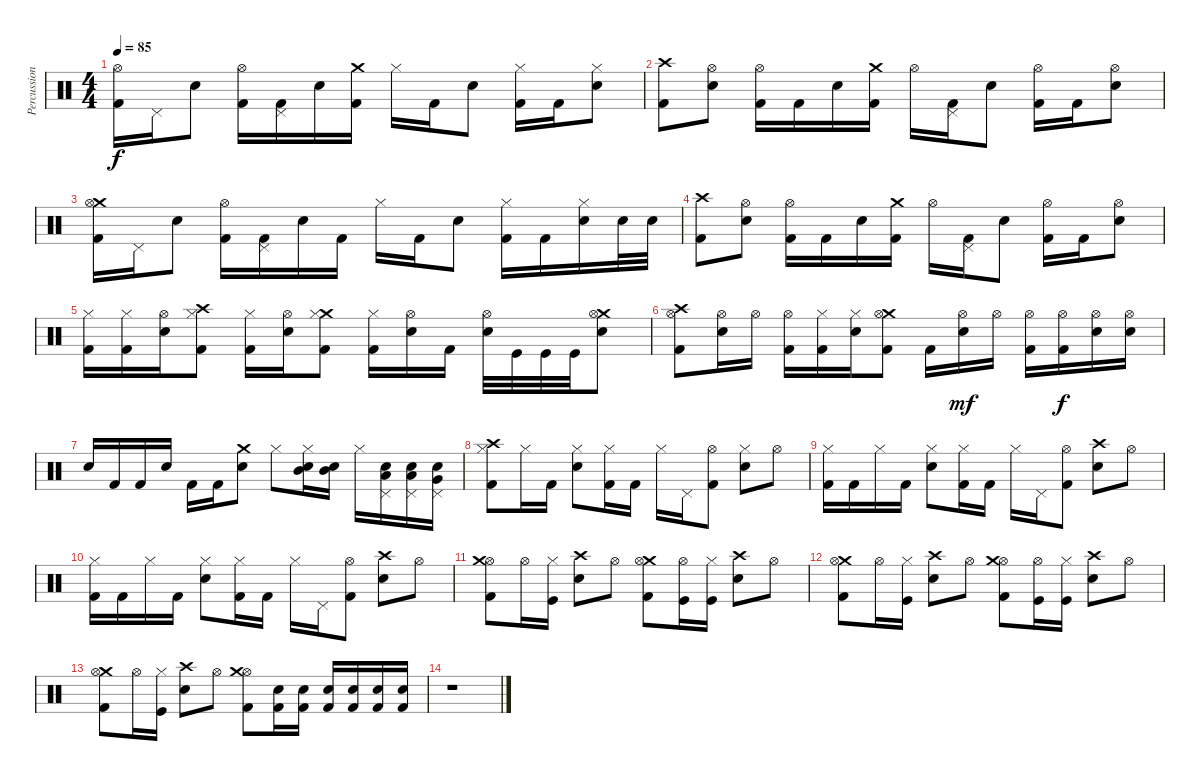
\track ("Percussion" "Percussion") {instrument percussion}
\staff {score}
\articulation defaults
\ts (4 4)
\tempo 85
\clef neutral
\ks c
("Hi-Hat (open)" "Kick (hit) 2").16{dy f} "Pedal Hi-Hat (hit)".16 "Snare (hit) 2".8 ("Hi-Hat (open)" "Kick (hit) 2").16 ("Pedal Hi-Hat (hit)" "Kick (hit) 2").16 "Snare (hit) 2".16 ("Crash medium (hit)" "Kick (hit) 2").16 "Hi-Hat (closed)".16 "Kick (hit) 2".16 "Snare (hit) 2".8 ("Hi-Hat (closed)" "Kick (hit) 2").16 "Kick (hit) 2".16 ("Hi-Hat (closed)" "Snare (hit) 2").8 |
("Crash high (hit)" "Kick (hit) 2").8 ("Hi-Hat (open)" "Snare (hit) 2").8 ("Hi-Hat (open)" "Kick (hit) 2").16 "Kick (hit) 2".16 "Snare (hit) 2".16 ("Crash medium (hit)" "Kick (hit) 2").16 "Hi-Hat (open)".16 ("Pedal Hi-Hat (hit)" "Kick (hit) 2").16 "Snare (hit) 2".8 ("Hi-Hat (open)" "Kick (hit) 2").16 "Kick (hit) 2".16 ("Hi-Hat (open)" "Snare (hit) 2").8 |
("Crash medium (hit)" "Hi-Hat (open)" "Kick (hit) 2").16 "Pedal Hi-Hat (hit)".16 "Snare (hit) 2".8 ("Hi-Hat (open)" "Kick (hit) 2").16 ("Pedal Hi-Hat (hit)" "Kick (hit) 2").16 "Snare (hit) 2".16 "Kick (hit) 2".16 "Hi-Hat (closed)".16 "Kick (hit) 2".16 "Snare (hit) 2".8 ("Hi-Hat (closed)" "Kick (hit) 2").16 "Kick (hit) 2".16 ("Hi-Hat (closed)" "Snare (hit) 2").16 "Snare (hit) 2".32 "Snare (hit) 2".32 |
("Crash high (hit)" "Kick (hit) 2").8 ("Hi-Hat (open)" "Snare (hit) 2").8 ("Hi-Hat (open)" "Kick (hit) 2").16 "Kick (hit) 2".16 "Snare (hit) 2".16 ("Crash medium (hit)" "Kick (hit) 2").16 "Hi-Hat (open)".16 ("Pedal Hi-Hat (hit)" "Kick (hit) 2").16 "Snare (hit) 2".8 ("Hi-Hat (open)" "Kick (hit) 2").16 "Kick (hit) 2".16 ("Hi-Hat (open)" "Snare (hit) 2").8 |
("Hi-Hat (closed)" "Kick (hit) 2").16 ("Hi-Hat (closed)" "Kick (hit) 2").16 ("Hi-Hat (open)" "Snare (hit) 2").16 ("Crash high (hit)" "Hi-Hat (closed)" "Kick (hit) 2").8 ("Hi-Hat (closed)" "Kick (hit) 2").16 ("Hi-Hat (open)" "Snare (hit) 2").16 ("Crash medium (hit)" "Hi-Hat (closed)" "Kick (hit) 2").8 ("Hi-Hat (closed)" "Kick (hit) 2").16 ("Hi-Hat (open)" "Snare (hit) 2").16 "Kick (hit) 2".16 ("Hi-Hat (open)" "Snare (hit) 2").32 "Kick (hit)".32 "Kick (hit)".32 "Kick (hit)".32 ("Crash medium (hit)" "Hi-Hat (open)" "Snare (hit) 2").8 |
("Hi-Hat (open)" "Kick (hit) 2" "Crash high (hit)").8 ("Hi-Hat (open)" "Snare (hit) 2").16 "Hi-Hat (open)".16 ("Hi-Hat (open)" "Kick (hit) 2").16 ("Hi-Hat (closed)" "Kick (hit) 2").16 ("Hi-Hat (closed)" "Snare (hit) 2").16 ("Crash medium (hit)" "Hi-Hat (open)" "Kick (hit) 2").8 "Kick (hit) 2".16 ("Hi-Hat (open)" "Snare (hit) 2").16{dy mf} "Hi-Hat (open)".16 ("Hi-Hat (open)" "Kick (hit) 2").16 ("Hi-Hat (open)" "Kick (hit) 2").16{dy f} ("Hi-Hat (open)" "Snare (hit) 2").16 ("Hi-Hat (open)" "Snare (hit) 2").16 |
"Snare (hit) 2".16 "Kick (hit) 2".16 "Kick (hit) 2".16 "Snare (hit) 2".16 "Kick (hit) 2".16 "Kick (hit) 2".16 ("Crash medium (hit)" "Snare (hit) 2").8 "Hi-Hat (closed)".8 ("Mid Tom (hit)" "Electric Snare (hit)" "Hi-Hat (closed)").16 ("Electric Snare (hit)" "Mid Tom (hit)").16 "Hi-Hat (closed)".16 ("Pedal Hi-Hat (hit)" "Electric Snare (hit)" "Low Tom (hit)").16 ("Pedal Hi-Hat (hit)" "Electric Snare (hit)" "Low Tom (hit)").16 ("Pedal Hi-Hat (hit)" "Electric Snare (hit)" "Very Low Tom (hit)").16 |
("Hi-Hat (closed)" "Kick (hit) 2" "Crash high (hit)").8 "Hi-Hat (closed)".16 "Kick (hit) 2".16 ("Hi-Hat (closed)" "Snare (hit) 2").8 ("Hi-Hat (closed)" "Kick (hit) 2").16 "Kick (hit) 2".16 "Hi-Hat (closed)".16 "Pedal Hi-Hat (hit)".16 ("Hi-Hat (open)" "Kick (hit) 2").8 ("Hi-Hat (closed)" "Snare (hit) 2").8 "Hi-Hat (open)".8 |
("Hi-Hat (closed)" "Kick (hit) 2").16 "Kick (hit) 2".16 "Hi-Hat (closed)".16 "Kick (hit) 2".16 ("Hi-Hat (closed)" "Snare (hit) 2").8 ("Hi-Hat (closed)" "Kick (hit) 2").16 "Kick (hit) 2".16 "Hi-Hat (closed)".16 "Pedal Hi-Hat (hit)".16 ("Kick (hit) 2" "Hi-Hat (open)").8 ("Snare (hit) 2" "Crash high (hit)").8 "Hi-Hat (open)".8 |
("Hi-Hat (closed)" "Kick (hit) 2").16 "Kick (hit) 2".16 "Hi-Hat (closed)".16 "Kick (hit) 2".16 ("Hi-Hat (closed)" "Snare (hit) 2").8 ("Hi-Hat (closed)" "Kick (hit) 2").16 "Kick (hit) 2".16 "Hi-Hat (closed)".16 "Pedal Hi-Hat (hit)".16 ("Kick (hit) 2" "Hi-Hat (open)").8 ("Snare (hit) 2" "Crash high (hit)").8 "Hi-Hat (open)".8 |
("Hi-Hat (open)" "Crash medium (hit)" "Kick (hit) 2").8 "Hi-Hat (open)".16 ("Hi-Hat (closed)" "Kick (hit)").16 ("Snare (hit) 2" "Crash high (hit)").8 "Hi-Hat (open)".8 ("Crash medium (hit)" "Kick (hit) 2" "Hi-Hat (open)").8 ("Hi-Hat (open)" "Kick (hit)").16 ("Hi-Hat (closed)" "Kick (hit)").16 ("Crash high (hit)" "Snare (hit) 2").8 "Hi-Hat (open)".8 |
("Crash medium (hit)" "Kick (hit) 2" "Hi-Hat (open)").8 "Hi-Hat (open)".16 ("Kick (hit)" "Hi-Hat (closed)").16 ("Snare (hit) 2" "Crash high (hit)").8 "Hi-Hat (open)".8 ("Hi-Hat (open)" "Crash medium (hit)" "Kick (hit) 2").8 ("Hi-Hat (open)" "Kick (hit)").16 ("Kick (hit)" "Hi-Hat (closed)").16 ("Snare (hit) 2" "Crash high (hit)").8 "Hi-Hat (open)".8 |
("Crash medium (hit)" "Kick (hit) 2" "Hi-Hat (open)").8 "Hi-Hat (open)".16 ("Kick (hit)" "Hi-Hat (closed)").16 ("Snare (hit) 2" "Crash high (hit)").8 "Hi-Hat (open)".8 ("Kick (hit) 2" "Hi-Hat (open)" "Crash medium (hit)").8 ("Kick (hit) 2" "Electric Snare (hit)").16 ("Kick (hit) 2" "Electric Snare (hit)").16 ("Kick (hit) 2" "Electric Snare (hit)").16 ("Kick (hit) 2" "Electric Snare (hit)").16 ("Kick (hit) 2" "Electric Snare (hit)").16 ("Kick (hit) 2" "Electric Snare (hit)").16 |
r.1
